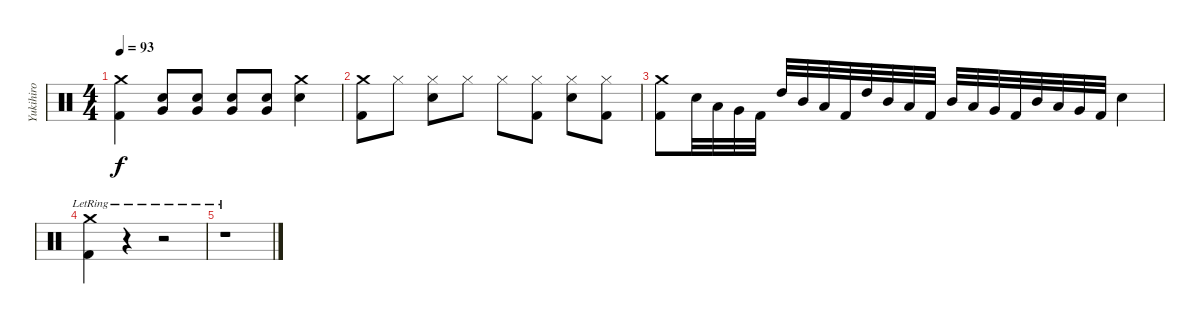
\track ("Yukihiro" "Yukihiro") {instrument percussion}
\staff {score}
\articulation defaults
\ts (4 4)
\tempo 93
\clef neutral
\ks c
("Crash medium (hit)" "Kick (hit) 2").4{dy f} ("Snare (hit) 2" "Very Low Tom (hit)").8 ("Snare (hit) 2" "Very Low Tom (hit)").8 ("Snare (hit) 2" "Very Low Tom (hit)").8 ("Snare (hit) 2" "Very Low Tom (hit)").8 ("Crash medium (hit)" "Snare (hit) 2").4 |
("Crash medium (hit)" "Kick (hit) 2").8 "Hi-Hat (closed)".8 ("Hi-Hat (closed)" "Snare (hit) 2").8 "Hi-Hat (closed)".8 "Hi-Hat (closed)".8 ("Hi-Hat (closed)" "Kick (hit) 2").8 ("Hi-Hat (closed)" "Snare (hit) 2").8 ("Hi-Hat (closed)" "Kick (hit) 2").8 |
("Crash medium (hit)" "Kick (hit) 2").8 "Snare (hit) 2".32 "Low Tom (hit)".32 "Very Low Tom (hit)".32 "Kick (hit) 2".32 "High Tom (hit)".32 "Mid Tom (hit)".32 "Low Tom (hit)".32 "Kick (hit) 2".32 "High Tom (hit)".32 "Mid Tom (hit)".32 "Low Tom (hit)".32 "Kick (hit) 2".32 "Mid Tom (hit)".32 "Low Tom (hit)".32 "Very Low Tom (hit)".32 "Kick (hit) 2".32 "Mid Tom (hit)".32 "Low Tom (hit)".32 "Very Low Tom (hit)".32 "Kick (hit) 2".32 "Snare (hit) 2".4 |
("Crash medium (hit)"{lr} "Kick (hit) 2"{lr}).4 r.4 r.2 |
r.1
